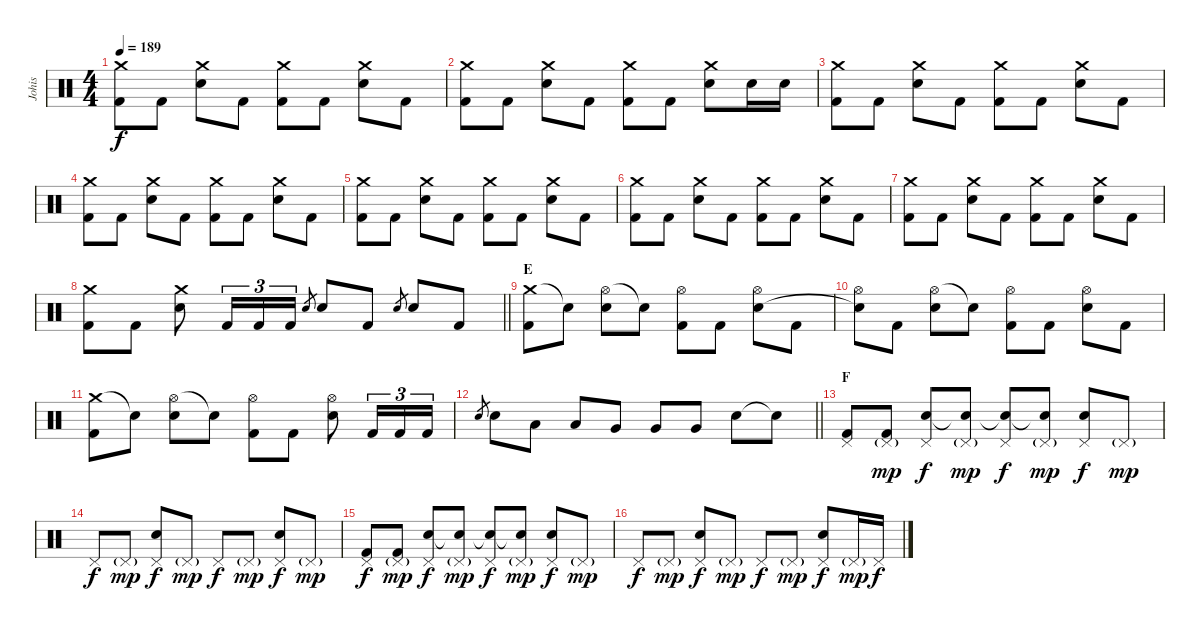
\track ("Johis" "Johis") {instrument percussion}
\staff {score}
\articulation defaults
\ts (4 4)
\tempo 189
\clef neutral
\ks c
("Crash medium (hit)" "Kick (hit) 2").8{dy f} "Kick (hit) 2".8 ("Crash medium (hit)" "Electric Snare (hit)").8 "Kick (hit) 2".8 ("Crash medium (hit)" "Kick (hit) 2").8 "Kick (hit) 2".8 ("Crash medium (hit)" "Electric Snare (hit)").8 "Kick (hit) 2".8 |
("Crash medium (hit)" "Kick (hit) 2").8 "Kick (hit) 2".8 ("Crash medium (hit)" "Electric Snare (hit)").8 "Kick (hit) 2".8 ("Crash medium (hit)" "Kick (hit) 2").8 "Kick (hit) 2".8 ("Crash medium (hit)" "Electric Snare (hit)").8 "Electric Snare (hit)".16 "Electric Snare (hit)".16 |
("Crash medium (hit)" "Kick (hit) 2").8 "Kick (hit) 2".8 ("Crash medium (hit)" "Electric Snare (hit)").8 "Kick (hit) 2".8 ("Crash medium (hit)" "Kick (hit) 2").8 "Kick (hit) 2".8 ("Crash medium (hit)" "Electric Snare (hit)").8 "Kick (hit) 2".8 |
("Crash medium (hit)" "Kick (hit) 2").8 "Kick (hit) 2".8 ("Crash medium (hit)" "Electric Snare (hit)").8 "Kick (hit) 2".8 ("Crash medium (hit)" "Kick (hit) 2").8 "Kick (hit) 2".8 ("Crash medium (hit)" "Electric Snare (hit)").8 "Kick (hit) 2".8 |
("Crash medium (hit)" "Kick (hit) 2").8 "Kick (hit) 2".8 ("Crash medium (hit)" "Electric Snare (hit)").8 "Kick (hit) 2".8 ("Crash medium (hit)" "Kick (hit) 2").8 "Kick (hit) 2".8 ("Crash medium (hit)" "Electric Snare (hit)").8 "Kick (hit) 2".8 |
("Crash medium (hit)" "Kick (hit) 2").8 "Kick (hit) 2".8 ("Crash medium (hit)" "Electric Snare (hit)").8 "Kick (hit) 2".8 ("Crash medium (hit)" "Kick (hit) 2").8 "Kick (hit) 2".8 ("Crash medium (hit)" "Electric Snare (hit)").8 "Kick (hit) 2".8 |
("Crash medium (hit)" "Kick (hit) 2").8 "Kick (hit) 2".8 ("Crash medium (hit)" "Electric Snare (hit)").8 "Kick (hit) 2".8 ("Crash medium (hit)" "Kick (hit) 2").8 "Kick (hit) 2".8 ("Crash medium (hit)" "Electric Snare (hit)").8 "Kick (hit) 2".8 |
\barLineRight lightlight
("Crash medium (hit)" "Kick (hit) 2").8 "Kick (hit) 2".8 ("Crash medium (hit)" "Electric Snare (hit)").8 "Kick (hit) 2".16{tu (3 2)} "Kick (hit) 2".16{tu (3 2)} "Kick (hit) 2".16{tu (3 2)} "Electric Snare (hit)".8{gr} "Electric Snare (hit)".8 "Kick (hit) 2".8 "Electric Snare (hit)".8{gr} "Electric Snare (hit)".8 "Kick (hit) 2".8 |
\section ("" "E")
("Crash medium (hit)" "Kick (hit) 2").8 "Snare (hit)"{t}.8 ("Hi-Hat (open)" "Electric Snare (hit)").8 "Snare (hit)"{t}.8 ("Hi-Hat (open)" "Kick (hit) 2").8 "Kick (hit) 2".8 ("Hi-Hat (open)" "Electric Snare (hit)").8 "Kick (hit) 2".8 |
("Hi-Hat (open)" "Snare (hit)"{t}).8 "Kick (hit) 2".8 ("Hi-Hat (open)" "Electric Snare (hit)").8 "Snare (hit)"{t}.8 ("Hi-Hat (open)" "Kick (hit) 2").8 "Kick (hit) 2".8 ("Hi-Hat (open)" "Electric Snare (hit)").8 "Kick (hit) 2".8 |
("Crash medium (hit)" "Kick (hit) 2").8 "Snare (hit)"{t}.8 ("Hi-Hat (open)" "Electric Snare (hit)").8 "Snare (hit)"{t}.8 ("Hi-Hat (open)" "Kick (hit) 2").8 "Kick (hit) 2".8 ("Hi-Hat (open)" "Electric Snare (hit)").8 "Kick (hit) 2".16{tu (3 2)} "Kick (hit) 2".16{tu (3 2)} "Kick (hit) 2".16{tu (3 2)} |
\barLineRight lightlight "Electric Snare (hit)".8{gr} "Electric Snare (hit)".8 "Low Tom (hit)".8 "Low Tom (hit)".8 "Very Low Tom (hit)".8 "Very Low Tom (hit)".8 "Very Low Tom (hit)".8 "Electric Snare (hit)".8 "Snare (hit)"{t}.8
|
\section ("" "F")
("Pedal Hi-Hat (hit)" "Kick (hit) 2").8 ("Pedal Hi-Hat (hit)"{g} "Kick (hit) 2").8{dy mp} ("Pedal Hi-Hat (hit)" "Electric Snare (hit)").8{dy f} ("Pedal Hi-Hat (hit)"{g} "Snare (hit)"{t}).8{dy mp} ("Pedal Hi-Hat (hit)" "Electric Snare (hit)"{t}).8{dy f} ("Pedal Hi-Hat (hit)"{g} "Snare (hit)"{t}).8{dy mp} ("Pedal Hi-Hat (hit)" "Electric Snare (hit)").8{dy f} "Pedal Hi-Hat (hit)"{g}.8{dy mp} |
"Pedal Hi-Hat (hit)".8{dy f} "Pedal Hi-Hat (hit)"{g}.8{dy mp} ("Pedal Hi-Hat (hit)" "Electric Snare (hit)").8{dy f} "Pedal Hi-Hat (hit)"{g}.8{dy mp} "Pedal Hi-Hat (hit)".8{dy f} "Pedal Hi-Hat (hit)"{g}.8{dy mp} ("Pedal Hi-Hat (hit)" "Electric Snare (hit)").8{dy f} "Pedal Hi-Hat (hit)"{g}.8{dy mp} |
("Pedal Hi-Hat (hit)" "Kick (hit) 2").8{dy f} ("Pedal Hi-Hat (hit)"{g} "Kick (hit) 2").8{dy mp} ("Pedal Hi-Hat (hit)" "Electric Snare (hit)").8{dy f} ("Pedal Hi-Hat (hit)"{g} "Snare (hit)"{t}).8{dy mp} ("Pedal Hi-Hat (hit)" "Electric Snare (hit)"{t}).8{dy f} ("Pedal Hi-Hat (hit)"{g} "Snare (hit)"{t}).8{dy mp} ("Pedal Hi-Hat (hit)" "Electric Snare (hit)").8{dy f} "Pedal Hi-Hat (hit)"{g}.8{dy mp} |
"Pedal Hi-Hat (hit)".8{dy f} "Pedal Hi-Hat (hit)"{g}.8{dy mp} ("Pedal Hi-Hat (hit)" "Electric Snare (hit)").8{dy f} "Pedal Hi-Hat (hit)"{g}.8{dy mp} "Pedal Hi-Hat (hit)".8{dy f} "Pedal Hi-Hat (hit)"{g}.8{dy mp} ("Pedal Hi-Hat (hit)" "Electric Snare (hit)").8{dy f} "Pedal Hi-Hat (hit)"{g}.16{dy mp} "Pedal Hi-Hat (hit)".16{dy f}
